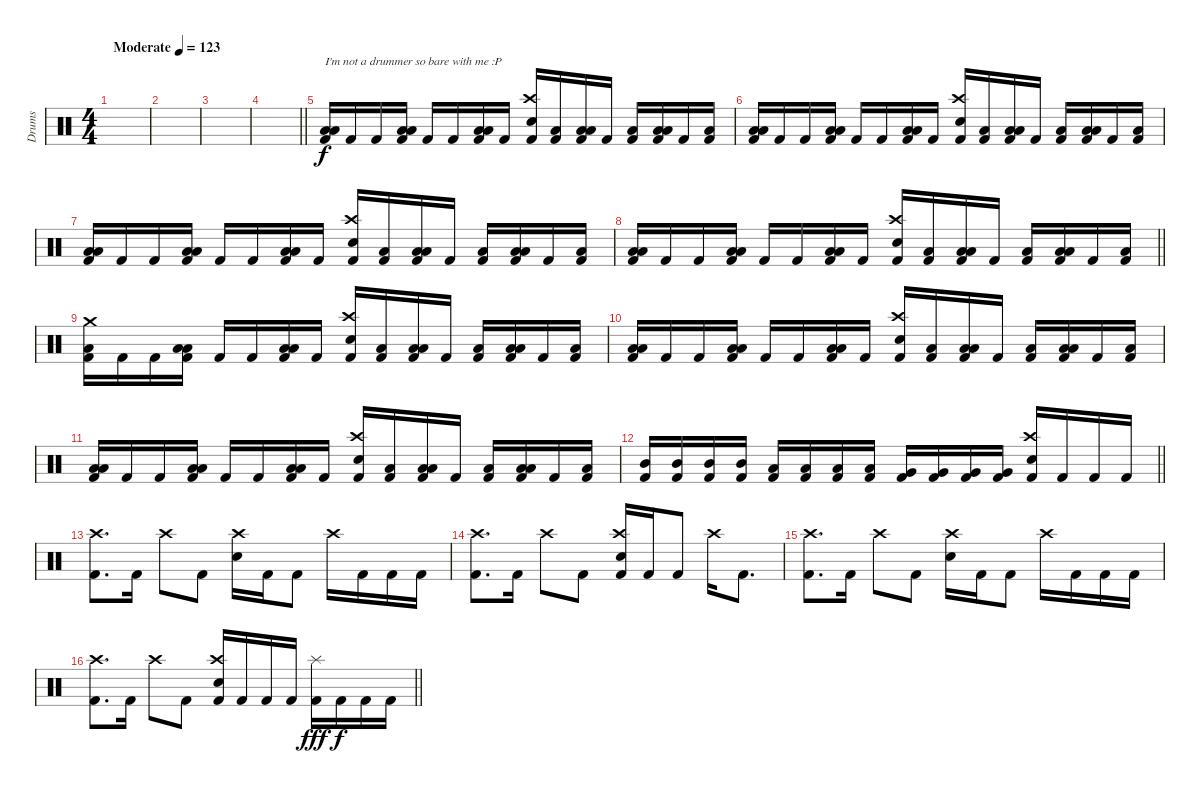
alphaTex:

\track ("Drums" "Drums") {instrument percussion}
\staff {score}
\articulation defaults
\ts (4 4)
\tempo (123 "Moderate")
\clef neutral
\ks c
|
|
|
\barLineRight lightlight
|
("Low Tom (hit)" "Low Floor Tom (hit)" "Kick (hit) 2").16{txt "I'm not a drummer so bare with me :P"} "Kick (hit) 2".16 "Kick (hit) 2".16 ("Low Tom (hit)" "Low Floor Tom (hit)" "Kick (hit) 2").16 "Kick (hit) 2".16 "Kick (hit) 2".16 ("Low Tom (hit)" "Low Floor Tom (hit)" "Kick (hit) 2").16 "Kick (hit) 2".16 ("Crash high (hit)" "Electric Snare (hit)" "Kick (hit) 2").16 ("Low Tom (hit)" "Kick (hit) 2").16 ("Low Tom (hit)" "Low Floor Tom (hit)" "Kick (hit) 2").16 "Kick (hit) 2".16 ("Low Tom (hit)" "Kick (hit) 2").16 ("Low Tom (hit)" "Low Floor Tom (hit)" "Kick (hit) 2").16 "Kick (hit) 2".16 ("Low Tom (hit)" "Kick (hit) 2").16 |
("Low Tom (hit)" "Low Floor Tom (hit)" "Kick (hit) 2").16 "Kick (hit) 2".16 "Kick (hit) 2".16 ("Low Tom (hit)" "Low Floor Tom (hit)" "Kick (hit) 2").16 "Kick (hit) 2".16 "Kick (hit) 2".16 ("Low Tom (hit)" "Low Floor Tom (hit)" "Kick (hit) 2").16 "Kick (hit) 2".16 ("Crash high (hit)" "Electric Snare (hit)" "Kick (hit) 2").16 ("Low Tom (hit)" "Kick (hit) 2").16 ("Low Tom (hit)" "Low Floor Tom (hit)" "Kick (hit) 2").16 "Kick (hit) 2".16 ("Low Tom (hit)" "Kick (hit) 2").16 ("Low Tom (hit)" "Low Floor Tom (hit)" "Kick (hit) 2").16 "Kick (hit) 2".16 ("Low Tom (hit)" "Kick (hit) 2").16 |
("Low Tom (hit)" "Low Floor Tom (hit)" "Kick (hit) 2").16 "Kick (hit) 2".16 "Kick (hit) 2".16 ("Low Tom (hit)" "Low Floor Tom (hit)" "Kick (hit) 2").16 "Kick (hit) 2".16 "Kick (hit) 2".16 ("Low Tom (hit)" "Low Floor Tom (hit)" "Kick (hit) 2").16 "Kick (hit) 2".16 ("Crash high (hit)" "Electric Snare (hit)" "Kick (hit) 2").16 ("Low Tom (hit)" "Kick (hit) 2").16 ("Low Tom (hit)" "Low Floor Tom (hit)" "Kick (hit) 2").16 "Kick (hit) 2".16 ("Low Tom (hit)" "Kick (hit) 2").16 ("Low Tom (hit)" "Low Floor Tom (hit)" "Kick (hit) 2").16 "Kick (hit) 2".16 ("Low Tom (hit)" "Kick (hit) 2").16 |
\barLineRight lightlight
("Low Tom (hit)" "Low Floor Tom (hit)" "Kick (hit) 2").16 "Kick (hit) 2".16 "Kick (hit) 2".16 ("Low Tom (hit)" "Low Floor Tom (hit)" "Kick (hit) 2").16 "Kick (hit) 2".16 "Kick (hit) 2".16 ("Low Tom (hit)" "Low Floor Tom (hit)" "Kick (hit) 2").16 "Kick (hit) 2".16 ("Crash high (hit)" "Electric Snare (hit)" "Kick (hit) 2").16 ("Low Tom (hit)" "Kick (hit) 2").16 ("Low Tom (hit)" "Low Floor Tom (hit)" "Kick (hit) 2").16 "Kick (hit) 2".16 ("Low Tom (hit)" "Kick (hit) 2").16 ("Low Tom (hit)" "Low Floor Tom (hit)" "Kick (hit) 2").16 "Kick (hit) 2".16 ("Low Tom (hit)" "Kick (hit) 2").16 |
("Crash medium (hit)" "Low Floor Tom (hit)" "Kick (hit) 2").16 "Kick (hit) 2".16 "Kick (hit) 2".16 ("Low Tom (hit)" "Low Floor Tom (hit)" "Kick (hit) 2").16 "Kick (hit) 2".16 "Kick (hit) 2".16 ("Low Tom (hit)" "Low Floor Tom (hit)" "Kick (hit) 2").16 "Kick (hit) 2".16 ("Crash high (hit)" "Electric Snare (hit)" "Kick (hit) 2").16 ("Low Tom (hit)" "Kick (hit) 2").16 ("Low Tom (hit)" "Low Floor Tom (hit)" "Kick (hit) 2").16 "Kick (hit) 2".16 ("Low Tom (hit)" "Kick (hit) 2").16 ("Low Tom (hit)" "Low Floor Tom (hit)" "Kick (hit) 2").16 "Kick (hit) 2".16 ("Low Tom (hit)" "Kick (hit) 2").16 |
("Low Tom (hit)" "Low Floor Tom (hit)" "Kick (hit) 2").16 "Kick (hit) 2".16 "Kick (hit) 2".16 ("Low Tom (hit)" "Low Floor Tom (hit)" "Kick (hit) 2").16 "Kick (hit) 2".16 "Kick (hit) 2".16 ("Low Tom (hit)" "Low Floor Tom (hit)" "Kick (hit) 2").16 "Kick (hit) 2".16 ("Crash high (hit)" "Electric Snare (hit)" "Kick (hit) 2").16 ("Low Tom (hit)" "Kick (hit) 2").16 ("Low Tom (hit)" "Low Floor Tom (hit)" "Kick (hit) 2").16 "Kick (hit) 2".16 ("Low Tom (hit)" "Kick (hit) 2").16 ("Low Tom (hit)" "Low Floor Tom (hit)" "Kick (hit) 2").16 "Kick (hit) 2".16 ("Low Tom (hit)" "Kick (hit) 2").16 |
("Low Tom (hit)" "Low Floor Tom (hit)" "Kick (hit) 2").16 "Kick (hit) 2".16 "Kick (hit) 2".16 ("Low Tom (hit)" "Low Floor Tom (hit)" "Kick (hit) 2").16 "Kick (hit) 2".16 "Kick (hit) 2".16 ("Low Tom (hit)" "Low Floor Tom (hit)" "Kick (hit) 2").16 "Kick (hit) 2".16 ("Crash high (hit)" "Electric Snare (hit)" "Kick (hit) 2").16 ("Low Tom (hit)" "Kick (hit) 2").16 ("Low Tom (hit)" "Low Floor Tom (hit)" "Kick (hit) 2").16 "Kick (hit) 2".16 ("Low Tom (hit)" "Kick (hit) 2").16 ("Low Tom (hit)" "Low Floor Tom (hit)" "Kick (hit) 2").16 "Kick (hit) 2".16 ("Low Tom (hit)" "Kick (hit) 2").16 |
\barLineRight lightlight
("Mid Tom (hit)" "Kick (hit) 2").16 ("Mid Tom (hit)" "Kick (hit) 2").16 ("Mid Tom (hit)" "Kick (hit) 2").16 ("Mid Tom (hit)" "Kick (hit) 2").16 ("Low Tom (hit)" "Kick (hit) 2").16 ("Low Tom (hit)" "Kick (hit) 2").16 ("Low Tom (hit)" "Kick (hit) 2").16 ("Low Tom (hit)" "Kick (hit) 2").16 ("Very Low Tom (hit)" "Kick (hit) 2").16 ("Very Low Tom (hit)" "Kick (hit) 2").16 ("Very Low Tom (hit)" "Kick (hit) 2").16 ("Very Low Tom (hit)" "Kick (hit) 2").16 ("Crash high (hit)" "Electric Snare (hit)" "Kick (hit) 2").16 "Kick (hit) 2".16 "Kick (hit) 2".16 "Kick (hit) 2".16 |
("Crash high (hit)" "Kick (hit) 2").8{d} "Kick (hit) 2".16 "Crash high (hit)".8 "Kick (hit) 2".8 ("Crash high (hit)" "Electric Snare (hit)").16 "Kick (hit) 2".16 "Kick (hit) 2".8 "Crash high (hit)".16 "Kick (hit) 2".16 "Kick (hit) 2".16 "Kick (hit) 2".16 |
("Crash high (hit)" "Kick (hit) 2").8{d} "Kick (hit) 2".16 "Crash high (hit)".8 "Kick (hit) 2".8 ("Crash high (hit)" "Electric Snare (hit)" "Kick (hit) 2").16 "Kick (hit) 2".16 "Kick (hit) 2".8 "Crash high (hit)".16 "Kick (hit) 2".8{d} |
("Crash high (hit)" "Kick (hit) 2").8{d} "Kick (hit) 2".16 "Crash high (hit)".8 "Kick (hit) 2".8 ("Crash high (hit)" "Electric Snare (hit)").16 "Kick (hit) 2".16 "Kick (hit) 2".8 "Crash high (hit)".16 "Kick (hit) 2".16 "Kick (hit) 2".16 "Kick (hit) 2".16 |
\barLineRight lightlight
("Crash high (hit)" "Kick (hit) 2").8{d} "Kick (hit) 2".16 "Crash high (hit)".8 "Kick (hit) 2".8 ("Crash high (hit)" "Electric Snare (hit)" "Kick (hit) 2").16 "Kick (hit) 2".16 "Kick (hit) 2".16 "Kick (hit) 2".16 ("Splash (hit)" "Kick (hit) 2").16{dy fff} "Kick (hit) 2".16{dy f} "Kick (hit) 2".16 "Kick (hit) 2".16
